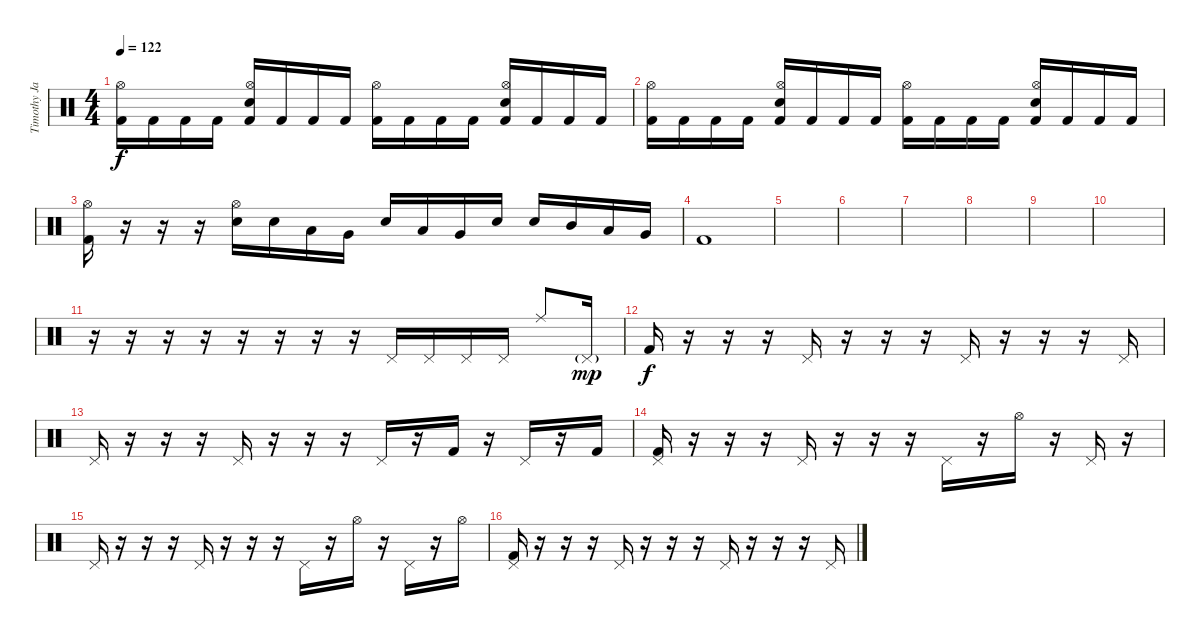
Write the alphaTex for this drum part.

\track ("Timothy Java" "Timothy Ja") {instrument percussion}
\staff {score}
\articulation defaults
\ts (4 4)
\tempo 122
\clef neutral
\ks c
("Kick (hit) 2" "Hi-Hat (open)").16{dy f} "Kick (hit) 2".16 "Kick (hit) 2".16 "Kick (hit) 2".16 ("Kick (hit) 2" "Electric Snare (hit)" "Hi-Hat (open)").16 "Kick (hit) 2".16 "Kick (hit) 2".16 "Kick (hit) 2".16 ("Kick (hit) 2" "Hi-Hat (open)").16 "Kick (hit) 2".16 "Kick (hit) 2".16 "Kick (hit) 2".16 ("Kick (hit) 2" "Electric Snare (hit)" "Hi-Hat (open)").16 "Kick (hit) 2".16 "Kick (hit) 2".16 "Kick (hit) 2".16 |
("Kick (hit) 2" "Hi-Hat (open)").16 "Kick (hit) 2".16 "Kick (hit) 2".16 "Kick (hit) 2".16 ("Kick (hit) 2" "Electric Snare (hit)" "Hi-Hat (open)").16 "Kick (hit) 2".16 "Kick (hit) 2".16 "Kick (hit) 2".16 ("Kick (hit) 2" "Hi-Hat (open)").16 "Kick (hit) 2".16 "Kick (hit) 2".16 "Kick (hit) 2".16 ("Kick (hit) 2" "Electric Snare (hit)" "Hi-Hat (open)").16 "Kick (hit) 2".16 "Kick (hit) 2".16 "Kick (hit) 2".16 |
("Hi-Hat (open)" "Kick (hit) 2").16 r.16 r.16 r.16 ("Hi-Hat (open)" "Electric Snare (hit)").16 "Electric Snare (hit)".16 "Low Tom (hit)".16 "Very Low Tom (hit)".16 "Electric Snare (hit)".16 "Low Tom (hit)".16 "Very Low Tom (hit)".16 "Electric Snare (hit)".16 "Electric Snare (hit)".16 "Mid Tom (hit)".16 "Low Tom (hit)".16 "Very Low Tom (hit)".16 |
"Kick (hit) 2".1 |
|
|
|
|
|
|
r.16 r.16 r.16 r.16 r.16 r.16 r.16 r.16 "Pedal Hi-Hat (hit)".16 "Pedal Hi-Hat (hit)".16 "Pedal Hi-Hat (hit)".16 "Pedal Hi-Hat (hit)".16 "Ride (middle)".8 "Pedal Hi-Hat (hit)"{g}.16{dy mp} |
"Kick (hit) 2".16{dy f} r.16 r.16 r.16 "Pedal Hi-Hat (hit)".16 r.16 r.16 r.16 "Pedal Hi-Hat (hit)".16 r.16 r.16 r.16 "Pedal Hi-Hat (hit)".16 |
"Pedal Hi-Hat (hit)".16 r.16 r.16 r.16 "Pedal Hi-Hat (hit)".16 r.16 r.16 r.16 "Pedal Hi-Hat (hit)".16 r.16 "Kick (hit) 2".16 r.16 "Pedal Hi-Hat (hit)".16 r.16 "Kick (hit) 2".16 |
("Pedal Hi-Hat (hit)" "Kick (hit) 2").16 r.16 r.16 r.16 "Pedal Hi-Hat (hit)".16 r.16 r.16 r.16 "Pedal Hi-Hat (hit)".16 r.16 "Hi-Hat (open)".16 r.16 "Pedal Hi-Hat (hit)".16 r.16 |
"Pedal Hi-Hat (hit)".16 r.16 r.16 r.16 "Pedal Hi-Hat (hit)".16 r.16 r.16 r.16 "Pedal Hi-Hat (hit)".16 r.16 "Hi-Hat (open)".16 r.16 "Pedal Hi-Hat (hit)".16 r.16 "Hi-Hat (open)".16 |
("Pedal Hi-Hat (hit)" "Kick (hit) 2").16 r.16 r.16 r.16 "Pedal Hi-Hat (hit)".16 r.16 r.16 r.16 "Pedal Hi-Hat (hit)".16 r.16 r.16 r.16 "Pedal Hi-Hat (hit)".16
